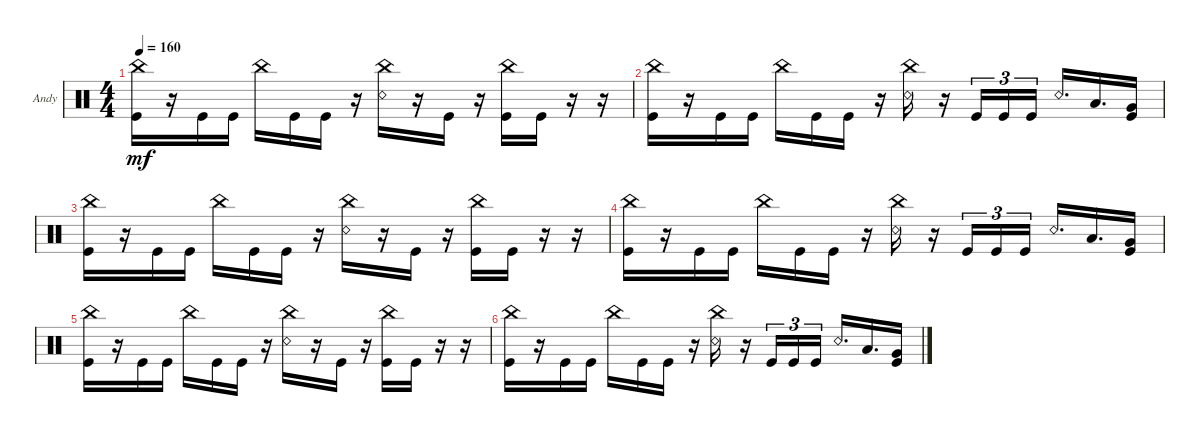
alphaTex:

\defaultSystemsLayout 4
\bracketExtendMode groupsimilarinstruments
\firstSystemTrackNameOrientation horizontal
\otherSystemsTrackNameOrientation horizontal
\track ("Drums" "Andy") {instrument percussion}
\staff {score}
\articulation defaults
\ts (4 4)
\tempo 160
\clef neutral
\ks c
("Kick (hit)" "China (hit)").16{dy mf} r.16 "Kick (hit)".16 "Kick (hit)".16 "China (hit)".16 "Kick (hit)".16 "Kick (hit)".16 r.16 ("Snare (rim shot)" "China (hit)").16 r.16 "Kick (hit)".16 r.16 ("Kick (hit)" "China (hit)").16 "Kick (hit)".16 r.16 r.16 |
("Kick (hit)" "China (hit)").16 r.16 "Kick (hit)".16 "Kick (hit)".16 "China (hit)".16 "Kick (hit)".16 "Kick (hit)".16 r.16 ("Snare (rim shot)" "China (hit)").16 r.16 "Kick (hit)".16{tu (3 2)} "Kick (hit)".16{tu (3 2)} "Kick (hit)".16{tu (3 2)} "Snare (rim shot)".16{d} "Low Tom (hit)".16{d} ("Kick (hit)" "Very Low Tom (hit)").16 |
("Kick (hit)" "China (hit)").16 r.16 "Kick (hit)".16 "Kick (hit)".16 "China (hit)".16 "Kick (hit)".16 "Kick (hit)".16 r.16 ("Snare (rim shot)" "China (hit)").16 r.16 "Kick (hit)".16 r.16 ("Kick (hit)" "China (hit)").16 "Kick (hit)".16 r.16 r.16 |
("Kick (hit)" "China (hit)").16 r.16 "Kick (hit)".16 "Kick (hit)".16 "China (hit)".16 "Kick (hit)".16 "Kick (hit)".16 r.16 ("Snare (rim shot)" "China (hit)").16 r.16 "Kick (hit)".16{tu (3 2)} "Kick (hit)".16{tu (3 2)} "Kick (hit)".16{tu (3 2)} "Snare (rim shot)".16{d} "Low Tom (hit)".16{d} ("Kick (hit)" "Very Low Tom (hit)").16 |
("Kick (hit)" "China (hit)").16 r.16 "Kick (hit)".16 "Kick (hit)".16 "China (hit)".16 "Kick (hit)".16 "Kick (hit)".16 r.16 ("Snare (rim shot)" "China (hit)").16 r.16 "Kick (hit)".16 r.16 ("Kick (hit)" "China (hit)").16 "Kick (hit)".16 r.16 r.16 |
("Kick (hit)" "China (hit)").16 r.16 "Kick (hit)".16 "Kick (hit)".16 "China (hit)".16 "Kick (hit)".16 "Kick (hit)".16 r.16 ("Snare (rim shot)" "China (hit)").16 r.16 "Kick (hit)".16{tu (3 2)} "Kick (hit)".16{tu (3 2)} "Kick (hit)".16{tu (3 2)} "Snare (rim shot)".16{d} "Low Tom (hit)".16{d} ("Kick (hit)" "Very Low Tom (hit)").16
